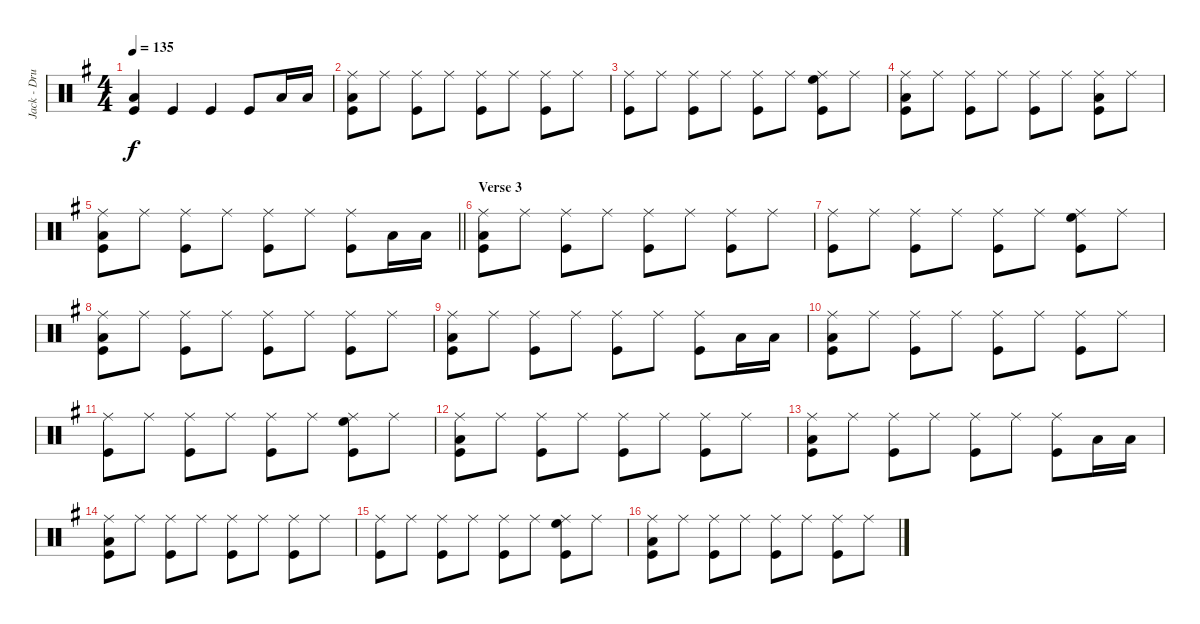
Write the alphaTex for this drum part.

\track ("Jack - Drums" "Jack - Dru") {instrument percussion}
\staff {score}
\articulation defaults
\ts (4 4)
\tempo 135
\clef neutral
\ks g
("Low Floor Tom (hit)" "Kick (hit)").4{dy f} "Kick (hit)".4 "Kick (hit)".4 "Kick (hit)".8 "Low Floor Tom (hit)".16 "Low Floor Tom (hit)".16 |
("Ride (middle)" "Low Floor Tom (hit)" "Kick (hit)").8 "Ride (middle)".8 ("Ride (middle)" "Kick (hit)").8 "Ride (middle)".8 ("Ride (middle)" "Kick (hit)").8 "Ride (middle)".8 ("Ride (middle)" "Kick (hit)").8 "Ride (middle)".8 |
("Ride (middle)" "Kick (hit)").8 "Ride (middle)".8 ("Ride (middle)" "Kick (hit)").8 "Ride (middle)".8 ("Ride (middle)" "Kick (hit)").8 "Ride (middle)".8 ("Ride (middle)" "High Floor Tom (hit)" "Kick (hit)").8 "Ride (middle)".8 |
("Ride (middle)" "Low Tom (hit)" "Kick (hit)").8 "Ride (middle)".8 ("Ride (middle)" "Kick (hit)").8 "Ride (middle)".8 ("Ride (middle)" "Kick (hit)").8 "Ride (middle)".8 ("Ride (middle)" "Low Tom (hit)" "Kick (hit)").8 "Ride (middle)".8 |
\barLineRight lightlight
("Ride (middle)" "Low Floor Tom (hit)" "Kick (hit)").8 "Ride (middle)".8 ("Ride (middle)" "Kick (hit)").8 "Ride (middle)".8 ("Ride (middle)" "Kick (hit)").8 "Ride (middle)".8 ("Ride (middle)" "Kick (hit)").8 "Low Floor Tom (hit)".16 "Low Floor Tom (hit)".16 |
\section ("" "Verse 3")
("Ride (middle)" "Low Floor Tom (hit)" "Kick (hit)").8 "Ride (middle)".8 ("Ride (middle)" "Kick (hit)").8 "Ride (middle)".8 ("Ride (middle)" "Kick (hit)").8 "Ride (middle)".8 ("Ride (middle)" "Kick (hit)").8 "Ride (middle)".8 |
("Ride (middle)" "Kick (hit)").8 "Ride (middle)".8 ("Ride (middle)" "Kick (hit)").8 "Ride (middle)".8 ("Ride (middle)" "Kick (hit)").8 "Ride (middle)".8 ("Ride (middle)" "High Floor Tom (hit)" "Kick (hit)").8 "Ride (middle)".8 |
("Ride (middle)" "Low Tom (hit)" "Kick (hit)").8 "Ride (middle)".8 ("Ride (middle)" "Kick (hit)").8 "Ride (middle)".8 ("Ride (middle)" "Kick (hit)").8 "Ride (middle)".8 ("Ride (middle)" "Kick (hit)").8 "Ride (middle)".8 |
("Ride (middle)" "Low Floor Tom (hit)" "Kick (hit)").8 "Ride (middle)".8 ("Ride (middle)" "Kick (hit)").8 "Ride (middle)".8 ("Ride (middle)" "Kick (hit)").8 "Ride (middle)".8 ("Ride (middle)" "Kick (hit)").8 "Low Floor Tom (hit)".16 "Low Floor Tom (hit)".16 |
("Ride (middle)" "Low Floor Tom (hit)" "Kick (hit)").8 "Ride (middle)".8 ("Ride (middle)" "Kick (hit)").8 "Ride (middle)".8 ("Ride (middle)" "Kick (hit)").8 "Ride (middle)".8 ("Ride (middle)" "Kick (hit)").8 "Ride (middle)".8 |
("Ride (middle)" "Kick (hit)").8 "Ride (middle)".8 ("Ride (middle)" "Kick (hit)").8 "Ride (middle)".8 ("Ride (middle)" "Kick (hit)").8 "Ride (middle)".8 ("Ride (middle)" "High Floor Tom (hit)" "Kick (hit)").8 "Ride (middle)".8 |
("Ride (middle)" "Low Tom (hit)" "Kick (hit)").8 "Ride (middle)".8 ("Ride (middle)" "Kick (hit)").8 "Ride (middle)".8 ("Ride (middle)" "Kick (hit)").8 "Ride (middle)".8 ("Ride (middle)" "Kick (hit)").8 "Ride (middle)".8 |
("Ride (middle)" "Low Floor Tom (hit)" "Kick (hit)").8 "Ride (middle)".8 ("Ride (middle)" "Kick (hit)").8 "Ride (middle)".8 ("Ride (middle)" "Kick (hit)").8 "Ride (middle)".8 ("Ride (middle)" "Kick (hit)").8 "Low Floor Tom (hit)".16 "Low Floor Tom (hit)".16 |
("Ride (middle)" "Low Floor Tom (hit)" "Kick (hit)").8 "Ride (middle)".8 ("Ride (middle)" "Kick (hit)").8 "Ride (middle)".8 ("Ride (middle)" "Kick (hit)").8 "Ride (middle)".8 ("Ride (middle)" "Kick (hit)").8 "Ride (middle)".8 |
("Ride (middle)" "Kick (hit)").8 "Ride (middle)".8 ("Ride (middle)" "Kick (hit)").8 "Ride (middle)".8 ("Ride (middle)" "Kick (hit)").8 "Ride (middle)".8 ("Ride (middle)" "High Floor Tom (hit)" "Kick (hit)").8 "Ride (middle)".8 |
("Ride (middle)" "Low Tom (hit)" "Kick (hit)").8 "Ride (middle)".8 ("Ride (middle)" "Kick (hit)").8 "Ride (middle)".8 ("Ride (middle)" "Kick (hit)").8 "Ride (middle)".8 ("Ride (middle)" "Kick (hit)").8 "Ride (middle)".8
